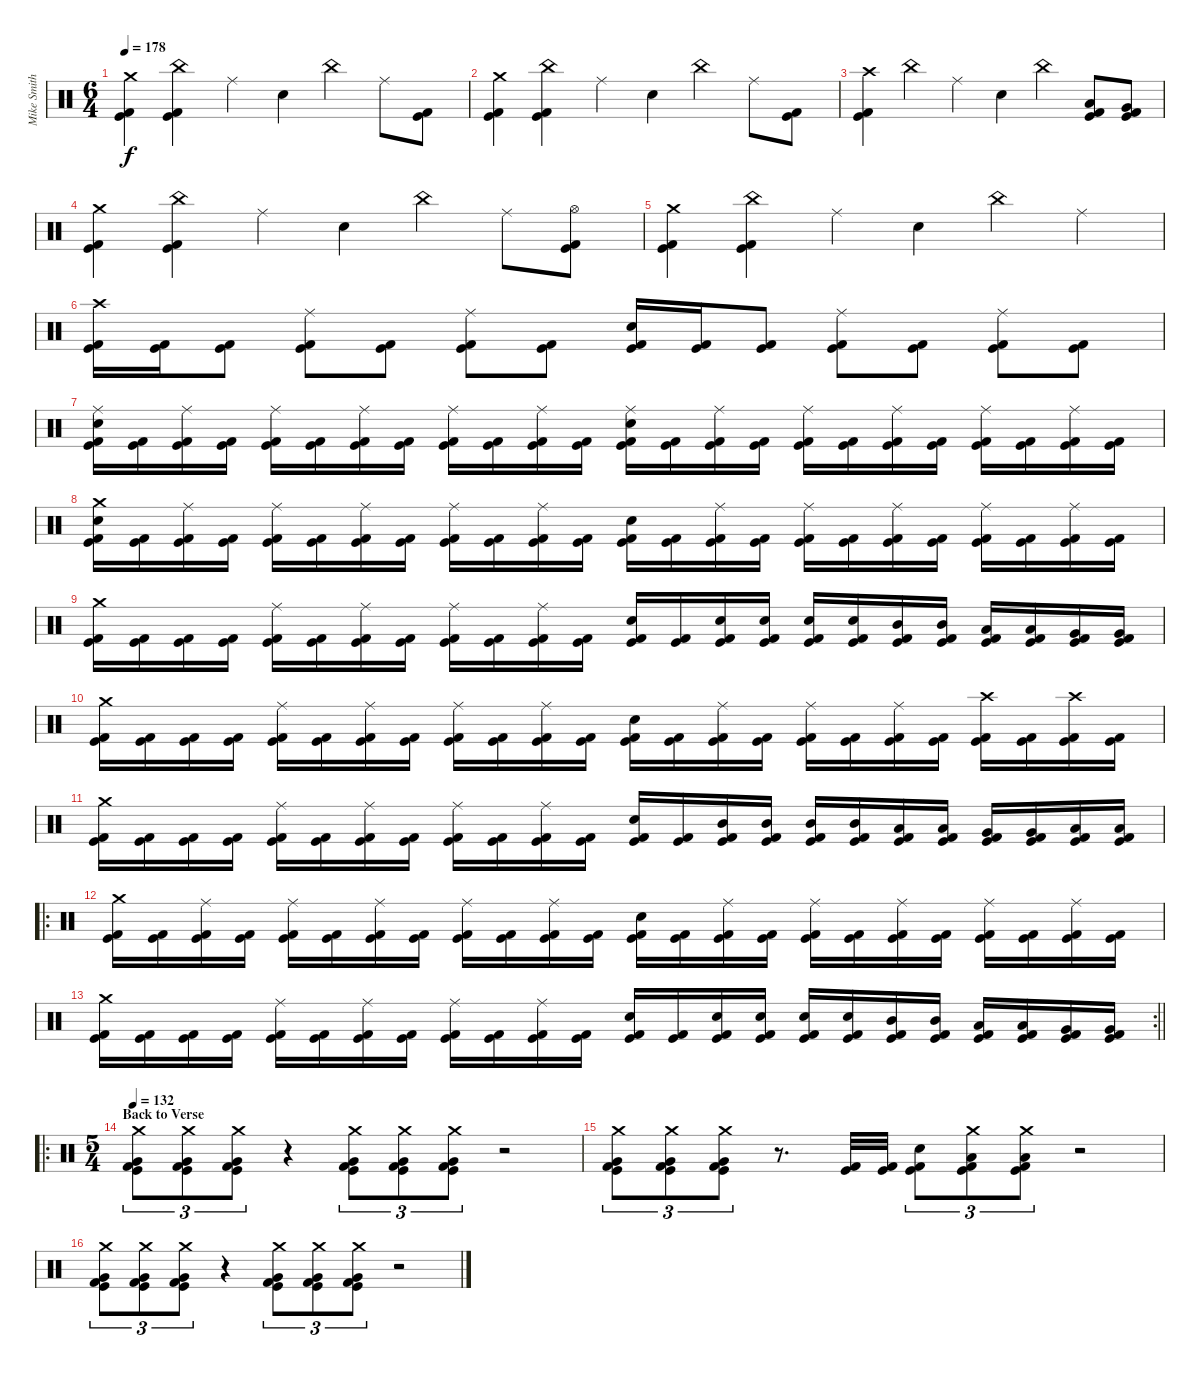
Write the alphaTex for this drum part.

\track ("Mike Smith" "Mike Smith") {instrument percussion}
\staff {score}
\articulation defaults
\ts (6 4)
\tempo 178
\clef neutral
\ks c
("Crash medium (hit)" "Kick (hit)" "Kick (hit) 2").4{dy f} ("China (hit)" "Kick (hit)" "Kick (hit) 2").4 "Ride (middle)".4 "Electric Snare (hit)".4 "China (hit)".4 "Ride (middle)".8 ("Kick (hit)" "Kick (hit) 2").8 |
("Crash medium (hit)" "Kick (hit)" "Kick (hit) 2").4 ("China (hit)" "Kick (hit)" "Kick (hit) 2").4 "Ride (middle)".4 "Electric Snare (hit)".4 "China (hit)".4 "Ride (middle)".8 ("Kick (hit)" "Kick (hit) 2").8 |
("Crash high (hit)" "Kick (hit)" "Kick (hit) 2").4 "China (hit)".4 "Ride (middle)".4 "Electric Snare (hit)".4 "China (hit)".4 ("Low Tom (hit)" "Kick (hit)" "Kick (hit) 2").8 ("Very Low Tom (hit)" "Kick (hit)" "Kick (hit) 2").8 |
("Crash medium (hit)" "Kick (hit)" "Kick (hit) 2").4 ("China (hit)" "Kick (hit)" "Kick (hit) 2").4 "Ride (middle)".4 "Electric Snare (hit)".4 "China (hit)".4 "Ride (middle)".8 ("Hi-Hat (open)" "Kick (hit)" "Kick (hit) 2").8 |
("Crash medium (hit)" "Kick (hit)" "Kick (hit) 2").4 ("China (hit)" "Kick (hit)" "Kick (hit) 2").4 "Ride (middle)".4 "Electric Snare (hit)".4 "China (hit)".4 "Ride (middle)".4 |
("Crash high (hit)" "Kick (hit)" "Kick (hit) 2").16 ("Kick (hit)" "Kick (hit) 2").16 ("Kick (hit)" "Kick (hit) 2").8 ("Ride (middle)" "Kick (hit)" "Kick (hit) 2").8 ("Kick (hit)" "Kick (hit) 2").8 ("Ride (middle)" "Kick (hit)" "Kick (hit) 2").8 ("Kick (hit)" "Kick (hit) 2").8 ("Electric Snare (hit)" "Kick (hit)" "Kick (hit) 2").16 ("Kick (hit)" "Kick (hit) 2").16 ("Kick (hit)" "Kick (hit) 2").8 ("Ride (middle)" "Kick (hit)" "Kick (hit) 2").8 ("Kick (hit)" "Kick (hit) 2").8 ("Ride (middle)" "Kick (hit)" "Kick (hit) 2").8 ("Kick (hit)" "Kick (hit) 2").8 |
("Ride (middle)" "Electric Snare (hit)" "Kick (hit)" "Kick (hit) 2").16 ("Kick (hit)" "Kick (hit) 2").16 ("Ride (middle)" "Kick (hit)" "Kick (hit) 2").16 ("Kick (hit)" "Kick (hit) 2").16 ("Ride (middle)" "Kick (hit)" "Kick (hit) 2").16 ("Kick (hit)" "Kick (hit) 2").16 ("Ride (middle)" "Kick (hit)" "Kick (hit) 2").16 ("Kick (hit)" "Kick (hit) 2").16 ("Ride (middle)" "Kick (hit)" "Kick (hit) 2").16 ("Kick (hit)" "Kick (hit) 2").16 ("Ride (middle)" "Kick (hit)" "Kick (hit) 2").16 ("Kick (hit)" "Kick (hit) 2").16 ("Ride (middle)" "Electric Snare (hit)" "Kick (hit)" "Kick (hit) 2").16 ("Kick (hit)" "Kick (hit) 2").16 ("Ride (middle)" "Kick (hit)" "Kick (hit) 2").16 ("Kick (hit)" "Kick (hit) 2").16 ("Ride (middle)" "Kick (hit)" "Kick (hit) 2").16 ("Kick (hit)" "Kick (hit) 2").16 ("Ride (middle)" "Kick (hit)" "Kick (hit) 2").16 ("Kick (hit)" "Kick (hit) 2").16 ("Ride (middle)" "Kick (hit)" "Kick (hit) 2").16 ("Kick (hit)" "Kick (hit) 2").16 ("Ride (middle)" "Kick (hit)" "Kick (hit) 2").16 ("Kick (hit)" "Kick (hit) 2").16 |
("Crash medium (hit)" "Electric Snare (hit)" "Kick (hit)" "Kick (hit) 2").16 ("Kick (hit)" "Kick (hit) 2").16 ("Ride (middle)" "Kick (hit)" "Kick (hit) 2").16 ("Kick (hit)" "Kick (hit) 2").16 ("Ride (middle)" "Kick (hit)" "Kick (hit) 2").16 ("Kick (hit)" "Kick (hit) 2").16 ("Ride (middle)" "Kick (hit)" "Kick (hit) 2").16 ("Kick (hit)" "Kick (hit) 2").16 ("Ride (middle)" "Kick (hit)" "Kick (hit) 2").16 ("Kick (hit)" "Kick (hit) 2").16 ("Ride (middle)" "Kick (hit)" "Kick (hit) 2").16 ("Kick (hit)" "Kick (hit) 2").16 ("Electric Snare (hit)" "Kick (hit)" "Kick (hit) 2").16 ("Kick (hit)" "Kick (hit) 2").16 ("Ride (middle)" "Kick (hit)" "Kick (hit) 2").16 ("Kick (hit)" "Kick (hit) 2").16 ("Ride (middle)" "Kick (hit)" "Kick (hit) 2").16 ("Kick (hit)" "Kick (hit) 2").16 ("Ride (middle)" "Kick (hit)" "Kick (hit) 2").16 ("Kick (hit)" "Kick (hit) 2").16 ("Ride (middle)" "Kick (hit)" "Kick (hit) 2").16 ("Kick (hit)" "Kick (hit) 2").16 ("Ride (middle)" "Kick (hit)" "Kick (hit) 2").16 ("Kick (hit)" "Kick (hit) 2").16 |
("Crash medium (hit)" "Kick (hit)" "Kick (hit) 2").16 ("Kick (hit)" "Kick (hit) 2").16 ("Kick (hit)" "Kick (hit) 2").16 ("Kick (hit)" "Kick (hit) 2").16 ("Ride (middle)" "Kick (hit)" "Kick (hit) 2").16 ("Kick (hit)" "Kick (hit) 2").16 ("Ride (middle)" "Kick (hit)" "Kick (hit) 2").16 ("Kick (hit)" "Kick (hit) 2").16 ("Ride (middle)" "Kick (hit)" "Kick (hit) 2").16 ("Kick (hit)" "Kick (hit) 2").16 ("Ride (middle)" "Kick (hit)" "Kick (hit) 2").16 ("Kick (hit)" "Kick (hit) 2").16 ("Electric Snare (hit)" "Kick (hit)" "Kick (hit) 2").16 ("Kick (hit)" "Kick (hit) 2").16 ("Electric Snare (hit)" "Kick (hit)" "Kick (hit) 2").16 ("Electric Snare (hit)" "Kick (hit)" "Kick (hit) 2").16 ("Electric Snare (hit)" "Kick (hit)" "Kick (hit) 2").16 ("Electric Snare (hit)" "Kick (hit)" "Kick (hit) 2").16 ("Mid Tom (hit)" "Kick (hit)" "Kick (hit) 2").16 ("Mid Tom (hit)" "Kick (hit)" "Kick (hit) 2").16 ("Low Tom (hit)" "Kick (hit)" "Kick (hit) 2").16 ("Low Tom (hit)" "Kick (hit)" "Kick (hit) 2").16 ("Very Low Tom (hit)" "Kick (hit)" "Kick (hit) 2").16 ("Very Low Tom (hit)" "Kick (hit)" "Kick (hit) 2").16 |
("Crash medium (hit)" "Kick (hit)" "Kick (hit) 2").16 ("Kick (hit)" "Kick (hit) 2").16 ("Kick (hit)" "Kick (hit) 2").16 ("Kick (hit)" "Kick (hit) 2").16 ("Ride (middle)" "Kick (hit)" "Kick (hit) 2").16 ("Kick (hit)" "Kick (hit) 2").16 ("Ride (middle)" "Kick (hit)" "Kick (hit) 2").16 ("Kick (hit)" "Kick (hit) 2").16 ("Ride (middle)" "Kick (hit)" "Kick (hit) 2").16 ("Kick (hit)" "Kick (hit) 2").16 ("Ride (middle)" "Kick (hit)" "Kick (hit) 2").16 ("Kick (hit)" "Kick (hit) 2").16 ("Electric Snare (hit)" "Kick (hit)" "Kick (hit) 2").16 ("Kick (hit)" "Kick (hit) 2").16 ("Ride (middle)" "Kick (hit)" "Kick (hit) 2").16 ("Kick (hit)" "Kick (hit) 2").16 ("Ride (middle)" "Kick (hit)" "Kick (hit) 2").16 ("Kick (hit)" "Kick (hit) 2").16 ("Ride (middle)" "Kick (hit)" "Kick (hit) 2").16 ("Kick (hit)" "Kick (hit) 2").16 ("Crash high (hit)" "Kick (hit)" "Kick (hit) 2").16 ("Kick (hit)" "Kick (hit) 2").16 ("Crash high (hit)" "Kick (hit)" "Kick (hit) 2").16 ("Kick (hit)" "Kick (hit) 2").16 |
("Crash medium (hit)" "Kick (hit)" "Kick (hit) 2").16 ("Kick (hit)" "Kick (hit) 2").16 ("Kick (hit)" "Kick (hit) 2").16 ("Kick (hit)" "Kick (hit) 2").16 ("Ride (middle)" "Kick (hit)" "Kick (hit) 2").16 ("Kick (hit)" "Kick (hit) 2").16 ("Ride (middle)" "Kick (hit)" "Kick (hit) 2").16 ("Kick (hit)" "Kick (hit) 2").16 ("Ride (middle)" "Kick (hit)" "Kick (hit) 2").16 ("Kick (hit)" "Kick (hit) 2").16 ("Ride (middle)" "Kick (hit)" "Kick (hit) 2").16 ("Kick (hit)" "Kick (hit) 2").16 ("Electric Snare (hit)" "Kick (hit)" "Kick (hit) 2").16 ("Kick (hit)" "Kick (hit) 2").16 ("Mid Tom (hit)" "Kick (hit)" "Kick (hit) 2").16 ("Mid Tom (hit)" "Kick (hit)" "Kick (hit) 2").16 ("Mid Tom (hit)" "Kick (hit)" "Kick (hit) 2").16 ("Mid Tom (hit)" "Kick (hit)" "Kick (hit) 2").16 ("Low Tom (hit)" "Kick (hit)" "Kick (hit) 2").16 ("Low Tom (hit)" "Kick (hit)" "Kick (hit) 2").16 ("Very Low Tom (hit)" "Kick (hit)" "Kick (hit) 2").16 ("Very Low Tom (hit)" "Kick (hit)" "Kick (hit) 2").16 ("Low Floor Tom (hit)" "Kick (hit)" "Kick (hit) 2").16 ("Low Floor Tom (hit)" "Kick (hit)" "Kick (hit) 2").16 |
\ro
("Crash medium (hit)" "Kick (hit)" "Kick (hit) 2").16 ("Kick (hit)" "Kick (hit) 2").16 ("Ride (middle)" "Kick (hit)" "Kick (hit) 2").16 ("Kick (hit)" "Kick (hit) 2").16 ("Ride (middle)" "Kick (hit)" "Kick (hit) 2").16 ("Kick (hit)" "Kick (hit) 2").16 ("Ride (middle)" "Kick (hit)" "Kick (hit) 2").16 ("Kick (hit)" "Kick (hit) 2").16 ("Ride (middle)" "Kick (hit)" "Kick (hit) 2").16 ("Kick (hit)" "Kick (hit) 2").16 ("Ride (middle)" "Kick (hit)" "Kick (hit) 2").16 ("Kick (hit)" "Kick (hit) 2").16 ("Electric Snare (hit)" "Kick (hit)" "Kick (hit) 2").16 ("Kick (hit)" "Kick (hit) 2").16 ("Ride (middle)" "Kick (hit)" "Kick (hit) 2").16 ("Kick (hit)" "Kick (hit) 2").16 ("Ride (middle)" "Kick (hit)" "Kick (hit) 2").16 ("Kick (hit)" "Kick (hit) 2").16 ("Ride (middle)" "Kick (hit)" "Kick (hit) 2").16 ("Kick (hit)" "Kick (hit) 2").16 ("Ride (middle)" "Kick (hit)" "Kick (hit) 2").16 ("Kick (hit)" "Kick (hit) 2").16 ("Ride (middle)" "Kick (hit)" "Kick (hit) 2").16 ("Kick (hit)" "Kick (hit) 2").16 |
\rc 2
\barLineRight lightlight
("Crash medium (hit)" "Kick (hit)" "Kick (hit) 2").16 ("Kick (hit)" "Kick (hit) 2").16 ("Kick (hit)" "Kick (hit) 2").16 ("Kick (hit)" "Kick (hit) 2").16 ("Ride (middle)" "Kick (hit)" "Kick (hit) 2").16 ("Kick (hit)" "Kick (hit) 2").16 ("Ride (middle)" "Kick (hit)" "Kick (hit) 2").16 ("Kick (hit)" "Kick (hit) 2").16 ("Ride (middle)" "Kick (hit)" "Kick (hit) 2").16 ("Kick (hit)" "Kick (hit) 2").16 ("Ride (middle)" "Kick (hit)" "Kick (hit) 2").16 ("Kick (hit)" "Kick (hit) 2").16 ("Electric Snare (hit)" "Kick (hit)" "Kick (hit) 2").16 ("Kick (hit)" "Kick (hit) 2").16 ("Electric Snare (hit)" "Kick (hit)" "Kick (hit) 2").16 ("Electric Snare (hit)" "Kick (hit)" "Kick (hit) 2").16 ("Electric Snare (hit)" "Kick (hit)" "Kick (hit) 2").16 ("Electric Snare (hit)" "Kick (hit)" "Kick (hit) 2").16 ("Mid Tom (hit)" "Kick (hit)" "Kick (hit) 2").16 ("Mid Tom (hit)" "Kick (hit)" "Kick (hit) 2").16 ("Low Tom (hit)" "Kick (hit)" "Kick (hit) 2").16 ("Low Tom (hit)" "Kick (hit)" "Kick (hit) 2").16 ("Very Low Tom (hit)" "Kick (hit)" "Kick (hit) 2").16 ("Very Low Tom (hit)" "Kick (hit)" "Kick (hit) 2").16 |
\ro
\ts (5 4)
\section ("" "Back to Verse")
\tempo 132
("Crash medium (hit)" "Very Low Tom (hit)" "Kick (hit)" "Kick (hit) 2").8{tu (3 2)} ("Crash medium (hit)" "Very Low Tom (hit)" "Kick (hit)" "Kick (hit) 2").8{tu (3 2)} ("Crash medium (hit)" "Very Low Tom (hit)" "Kick (hit)" "Kick (hit) 2").8{tu (3 2)} r.4 ("Crash medium (hit)" "Very Low Tom (hit)" "Kick (hit)" "Kick (hit) 2").8{tu (3 2)} ("Crash medium (hit)" "Very Low Tom (hit)" "Kick (hit)" "Kick (hit) 2").8{tu (3 2)} ("Crash medium (hit)" "Very Low Tom (hit)" "Kick (hit)" "Kick (hit) 2").8{tu (3 2)} r.2 |
("Crash medium (hit)" "Very Low Tom (hit)" "Kick (hit)" "Kick (hit) 2").8{tu (3 2)} ("Crash medium (hit)" "Very Low Tom (hit)" "Kick (hit)" "Kick (hit) 2").8{tu (3 2)} ("Crash medium (hit)" "Very Low Tom (hit)" "Kick (hit)" "Kick (hit) 2").8{tu (3 2)} r.8{d} ("Kick (hit)" "Kick (hit) 2").32 ("Kick (hit)" "Kick (hit) 2").32 ("Electric Snare (hit)" "Kick (hit)" "Kick (hit) 2").8{tu (3 2)} ("Crash medium (hit)" "Low Floor Tom (hit)" "Kick (hit)" "Kick (hit) 2").8{tu (3 2)} ("Crash medium (hit)" "Low Floor Tom (hit)" "Kick (hit)" "Kick (hit) 2").8{tu (3 2)} r.2 |
("Crash medium (hit)" "Very Low Tom (hit)" "Kick (hit)" "Kick (hit) 2").8{tu (3 2)} ("Crash medium (hit)" "Very Low Tom (hit)" "Kick (hit)" "Kick (hit) 2").8{tu (3 2)} ("Crash medium (hit)" "Very Low Tom (hit)" "Kick (hit)" "Kick (hit) 2").8{tu (3 2)} r.4 ("Crash medium (hit)" "Very Low Tom (hit)" "Kick (hit)" "Kick (hit) 2").8{tu (3 2)} ("Crash medium (hit)" "Very Low Tom (hit)" "Kick (hit)" "Kick (hit) 2").8{tu (3 2)} ("Crash medium (hit)" "Very Low Tom (hit)" "Kick (hit)" "Kick (hit) 2").8{tu (3 2)} r.2
